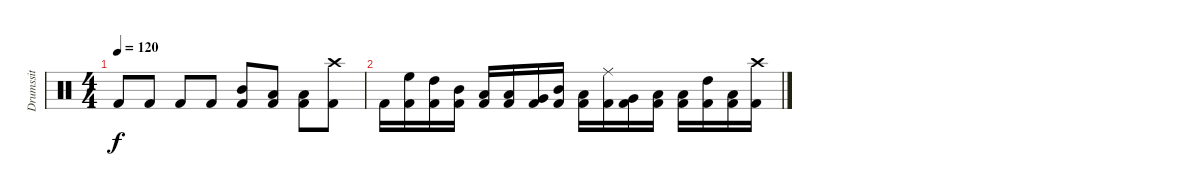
\track ("Drumssit" "Drumssit") {instrument percussion}
\staff {score}
\articulation defaults
\ts (4 4)
\tempo 120
\clef neutral
\ks c "Kick (hit) 2".8{dy f} "Kick (hit) 2".8 "Kick (hit) 2".8 "Kick (hit) 2".8
("Mid Tom (hit)" "Kick (hit) 2").8 ("Low Tom (hit)" "Kick (hit) 2").8 ("Low Floor Tom (hit)" "Kick (hit) 2").8 ("Crash high (hit)" "Kick (hit) 2").8 |
"Kick (hit) 2".16 ("High Floor Tom (hit)" "Kick (hit) 2").16 ("High Tom (hit)" "Kick (hit) 2").16 ("Mid Tom (hit)" "Kick (hit) 2").16 ("Low Tom (hit)" "Kick (hit) 2").16 ("Low Floor Tom (hit)" "Kick (hit) 2").16 ("Very Low Tom (hit)" "Kick (hit) 2").16 ("Mid Tom (hit)" "Kick (hit) 2").16 ("Low Tom (hit)" "Kick (hit) 2").16 ("Ride (middle)" "Kick (hit) 2").16 ("Very Low Tom (hit)" "Kick (hit) 2").16 ("Low Floor Tom (hit)" "Kick (hit) 2").16 ("Low Tom (hit)" "Kick (hit) 2").16 ("High Tom (hit)" "Kick (hit) 2").16 ("Low Floor Tom (hit)" "Kick (hit) 2").16 ("Crash high (hit)" "Kick (hit) 2").16
